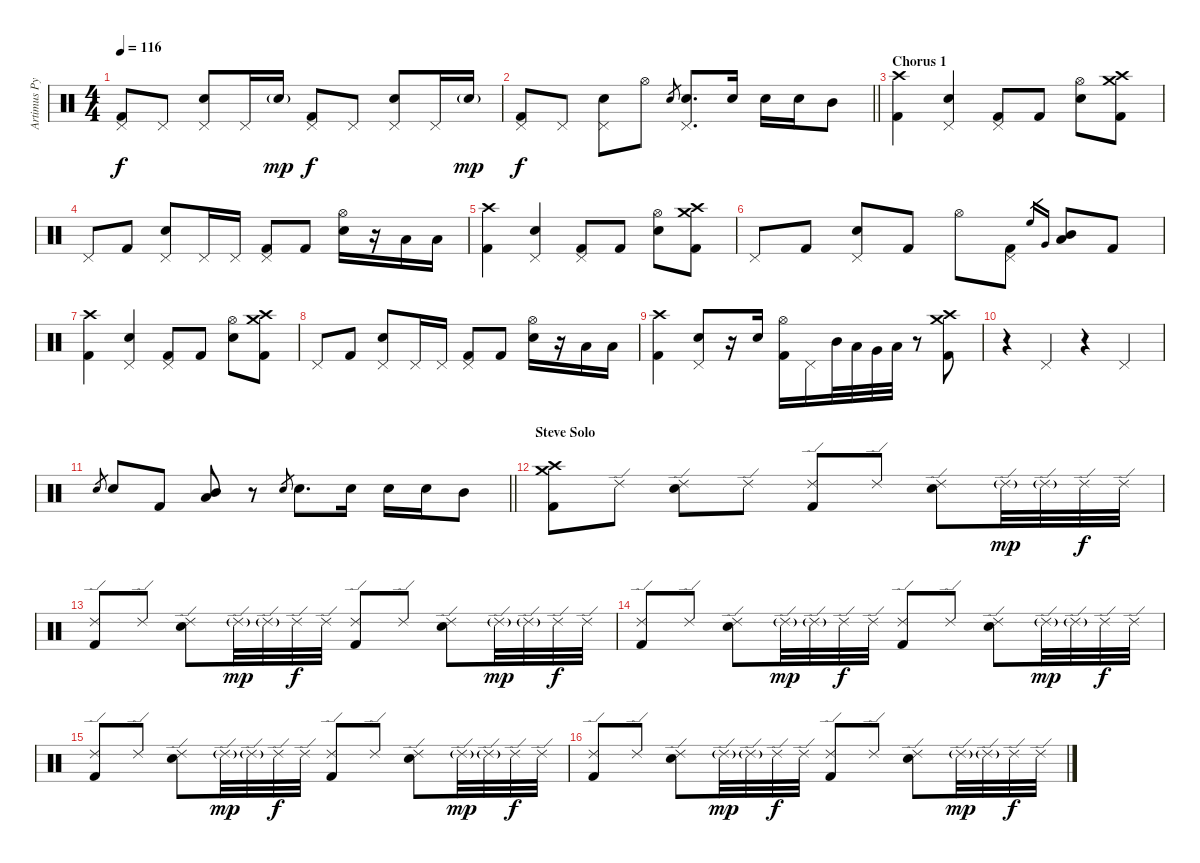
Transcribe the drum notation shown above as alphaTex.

\track ("Artimus Pyle - Drums and Percussion" "Artimus Py") {instrument percussion}
\staff {score}
\articulation defaults
\ts (4 4)
\tempo 116
\clef neutral
\ks c
("Pedal Hi-Hat (hit)" "Kick (hit) 2").8{dy f} "Pedal Hi-Hat (hit)".8 ("Snare (hit) 2" "Pedal Hi-Hat (hit)").8 "Pedal Hi-Hat (hit)".16 "Snare (hit) 2"{g}.16{dy mp} ("Pedal Hi-Hat (hit)" "Kick (hit) 2").8{dy f} "Pedal Hi-Hat (hit)".8 ("Snare (hit) 2" "Pedal Hi-Hat (hit)").8 "Pedal Hi-Hat (hit)".16 "Snare (hit) 2"{g}.16{dy mp} |
\barLineRight lightlight
("Pedal Hi-Hat (hit)" "Kick (hit) 2").8{dy f} "Pedal Hi-Hat (hit)".8 ("Snare (hit) 2" "Pedal Hi-Hat (hit)").8 "Hi-Hat (open)".8 "Snare (hit) 2".8{gr} ("Snare (hit) 2" "Pedal Hi-Hat (hit)").8{d} "Snare (hit) 2".16 "Snare (hit) 2".16 "Snare (hit) 2".16 "Mid Tom (hit)".8 |
\section ("" "Chorus 1")
("Crash high (hit)" "Kick (hit) 2").4 ("Snare (hit) 2" "Pedal Hi-Hat (hit)").4 ("Pedal Hi-Hat (hit)" "Kick (hit) 2").8 "Kick (hit) 2".8 ("Snare (hit) 2" "Hi-Hat (open)").8 ("Crash medium (hit)" "Crash high (hit)" "Kick (hit) 2").8 |
"Pedal Hi-Hat (hit)".8 "Kick (hit) 2".8 ("Snare (hit) 2" "Pedal Hi-Hat (hit)").8 "Pedal Hi-Hat (hit)".16 "Pedal Hi-Hat (hit)".16 ("Pedal Hi-Hat (hit)" "Kick (hit) 2").8 "Kick (hit) 2".8 ("Snare (hit) 2" "Hi-Hat (open)").16 r.16 "Low Floor Tom (hit)".16 "Low Floor Tom (hit)".16 |
("Crash high (hit)" "Kick (hit) 2").4 ("Snare (hit) 2" "Pedal Hi-Hat (hit)").4 ("Pedal Hi-Hat (hit)" "Kick (hit) 2").8 "Kick (hit) 2".8 ("Snare (hit) 2" "Hi-Hat (open)").8 ("Crash medium (hit)" "Crash high (hit)" "Kick (hit) 2").8 |
"Pedal Hi-Hat (hit)".8 "Kick (hit) 2".8 ("Snare (hit) 2" "Pedal Hi-Hat (hit)").8 "Kick (hit) 2".8 "Hi-Hat (open)".8 ("Pedal Hi-Hat (hit)" "Kick (hit) 2").8 "High Floor Tom (hit)".16{gr} "Very Low Tom (hit)".16{gr} ("Mid Tom (hit)" "Low Floor Tom (hit)").8 "Kick (hit) 2".8 |
("Crash high (hit)" "Kick (hit) 2").4 ("Snare (hit) 2" "Pedal Hi-Hat (hit)").4 ("Pedal Hi-Hat (hit)" "Kick (hit) 2").8 "Kick (hit) 2".8 ("Snare (hit) 2" "Hi-Hat (open)").8 ("Crash medium (hit)" "Crash high (hit)" "Kick (hit) 2").8 |
"Pedal Hi-Hat (hit)".8 "Kick (hit) 2".8 ("Snare (hit) 2" "Pedal Hi-Hat (hit)").8 "Pedal Hi-Hat (hit)".16 "Pedal Hi-Hat (hit)".16 ("Pedal Hi-Hat (hit)" "Kick (hit) 2").8 "Kick (hit) 2".8 ("Snare (hit) 2" "Hi-Hat (open)").16 r.16 "Low Floor Tom (hit)".16 "Low Floor Tom (hit)".16 |
("Crash high (hit)" "Kick (hit) 2").4 ("Snare (hit) 2" "Pedal Hi-Hat (hit)").8 r.16 "Snare (hit) 2".16 ("Hi-Hat (open)" "Kick (hit) 2").16 "Pedal Hi-Hat (hit)".16 "Mid Tom (hit)".32 "Low Tom (hit)".32 "Very Low Tom (hit)".32 "Low Floor Tom (hit)".32 r.8 ("Crash medium (hit)" "Crash high (hit)" "Kick (hit) 2").8 |
r.4 "Pedal Hi-Hat (hit)".4 r.4 "Pedal Hi-Hat (hit)".4 |
\barLineRight lightlight "Snare (hit) 2".8{gr} "Snare (hit) 2".8 "Kick (hit) 2".8
("Mid Tom (hit)" "Low Floor Tom (hit)").8 r.8 "Snare (hit) 2".8{gr} "Snare (hit) 2".8{d} "Snare (hit) 2".16 "Snare (hit) 2".16 "Snare (hit) 2".16 "Mid Tom (hit)".8 |
\section ("" "Steve Solo")
("Crash medium (hit)" "Crash high (hit)" "Kick (hit) 2").8 "Ride (edge) 2".8 ("Ride (edge) 2" "Snare (hit) 2").8 "Ride (edge) 2".8 ("Ride (edge) 2" "Kick (hit) 2").8 "Ride (edge) 2".8 ("Ride (edge) 2" "Snare (hit) 2").8 "Ride (edge) 2"{g}.32{dy mp} "Ride (edge) 2"{g}.32 "Ride (edge) 2".32{dy f} "Ride (edge) 2".32 |
("Ride (edge) 2" "Kick (hit) 2").8 "Ride (edge) 2".8 ("Ride (edge) 2" "Snare (hit) 2").8 "Ride (edge) 2"{g}.32{dy mp} "Ride (edge) 2"{g}.32 "Ride (edge) 2".32{dy f} "Ride (edge) 2".32 ("Ride (edge) 2" "Kick (hit) 2").8 "Ride (edge) 2".8 ("Ride (edge) 2" "Snare (hit) 2").8 "Ride (edge) 2"{g}.32{dy mp} "Ride (edge) 2"{g}.32 "Ride (edge) 2".32{dy f} "Ride (edge) 2".32 |
("Ride (edge) 2" "Kick (hit) 2").8 "Ride (edge) 2".8 ("Ride (edge) 2" "Snare (hit) 2").8 "Ride (edge) 2"{g}.32{dy mp} "Ride (edge) 2"{g}.32 "Ride (edge) 2".32{dy f} "Ride (edge) 2".32 ("Ride (edge) 2" "Kick (hit) 2").8 "Ride (edge) 2".8 ("Ride (edge) 2" "Snare (hit) 2").8 "Ride (edge) 2"{g}.32{dy mp} "Ride (edge) 2"{g}.32 "Ride (edge) 2".32{dy f} "Ride (edge) 2".32 |
("Ride (edge) 2" "Kick (hit) 2").8 "Ride (edge) 2".8 ("Ride (edge) 2" "Snare (hit) 2").8 "Ride (edge) 2"{g}.32{dy mp} "Ride (edge) 2"{g}.32 "Ride (edge) 2".32{dy f} "Ride (edge) 2".32 ("Ride (edge) 2" "Kick (hit) 2").8 "Ride (edge) 2".8 ("Ride (edge) 2" "Snare (hit) 2").8 "Ride (edge) 2"{g}.32{dy mp} "Ride (edge) 2"{g}.32 "Ride (edge) 2".32{dy f} "Ride (edge) 2".32 |
("Ride (edge) 2" "Kick (hit) 2").8 "Ride (edge) 2".8 ("Ride (edge) 2" "Snare (hit) 2").8 "Ride (edge) 2"{g}.32{dy mp} "Ride (edge) 2"{g}.32 "Ride (edge) 2".32{dy f} "Ride (edge) 2".32 ("Ride (edge) 2" "Kick (hit) 2").8 "Ride (edge) 2".8 ("Ride (edge) 2" "Snare (hit) 2").8 "Ride (edge) 2"{g}.32{dy mp} "Ride (edge) 2"{g}.32 "Ride (edge) 2".32{dy f} "Ride (edge) 2".32
